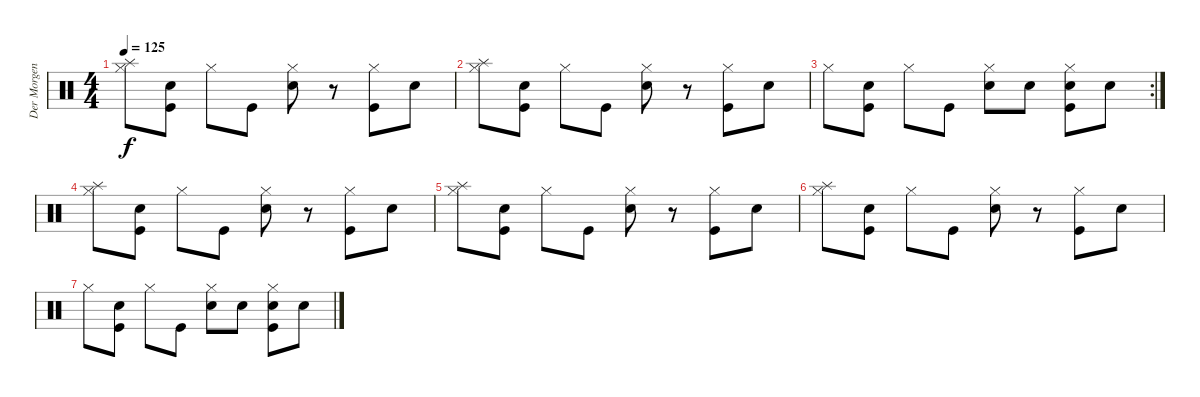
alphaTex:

\track ("Der Morgenstern" "Der Morgen") {instrument percussion}
\staff {score}
\articulation defaults
\ts (4 4)
\tempo 125
\clef neutral
\ks c
("Hi-Hat (closed)" "Splash (hit)").8{dy f} ("Snare (hit) 2" "Kick (hit)").8 "Hi-Hat (closed)".8 "Kick (hit)".8 ("Hi-Hat (closed)" "Snare (hit) 2").8 r.8 ("Hi-Hat (closed)" "Kick (hit)").8 "Snare (hit) 2".8 |
("Hi-Hat (closed)" "Splash (hit)").8 ("Snare (hit) 2" "Kick (hit)").8 "Hi-Hat (closed)".8 "Kick (hit)".8 ("Hi-Hat (closed)" "Snare (hit) 2").8 r.8 ("Hi-Hat (closed)" "Kick (hit)").8 "Snare (hit) 2".8 |
\rc 2 "Hi-Hat (closed)".8
("Snare (hit) 2" "Kick (hit)").8 "Hi-Hat (closed)".8 "Kick (hit)".8 ("Hi-Hat (closed)" "Snare (hit) 2").8 "Snare (hit) 2".8 ("Hi-Hat (closed)" "Snare (hit) 2" "Kick (hit)").8 "Snare (hit) 2".8 |
("Hi-Hat (closed)" "Splash (hit)").8 ("Snare (hit) 2" "Kick (hit)").8 "Hi-Hat (closed)".8 "Kick (hit)".8 ("Hi-Hat (closed)" "Snare (hit) 2").8 r.8 ("Hi-Hat (closed)" "Kick (hit)").8 "Snare (hit) 2".8 |
("Hi-Hat (closed)" "Splash (hit)").8 ("Snare (hit) 2" "Kick (hit)").8 "Hi-Hat (closed)".8 "Kick (hit)".8 ("Hi-Hat (closed)" "Snare (hit) 2").8 r.8 ("Hi-Hat (closed)" "Kick (hit)").8 "Snare (hit) 2".8 |
("Hi-Hat (closed)" "Splash (hit)").8 ("Snare (hit) 2" "Kick (hit)").8 "Hi-Hat (closed)".8 "Kick (hit)".8 ("Hi-Hat (closed)" "Snare (hit) 2").8 r.8 ("Hi-Hat (closed)" "Kick (hit)").8 "Snare (hit) 2".8 |
"Hi-Hat (closed)".8 ("Snare (hit) 2" "Kick (hit)").8 "Hi-Hat (closed)".8 "Kick (hit)".8 ("Hi-Hat (closed)" "Snare (hit) 2").8 "Snare (hit) 2".8 ("Hi-Hat (closed)" "Snare (hit) 2" "Kick (hit)").8 "Snare (hit) 2".8
